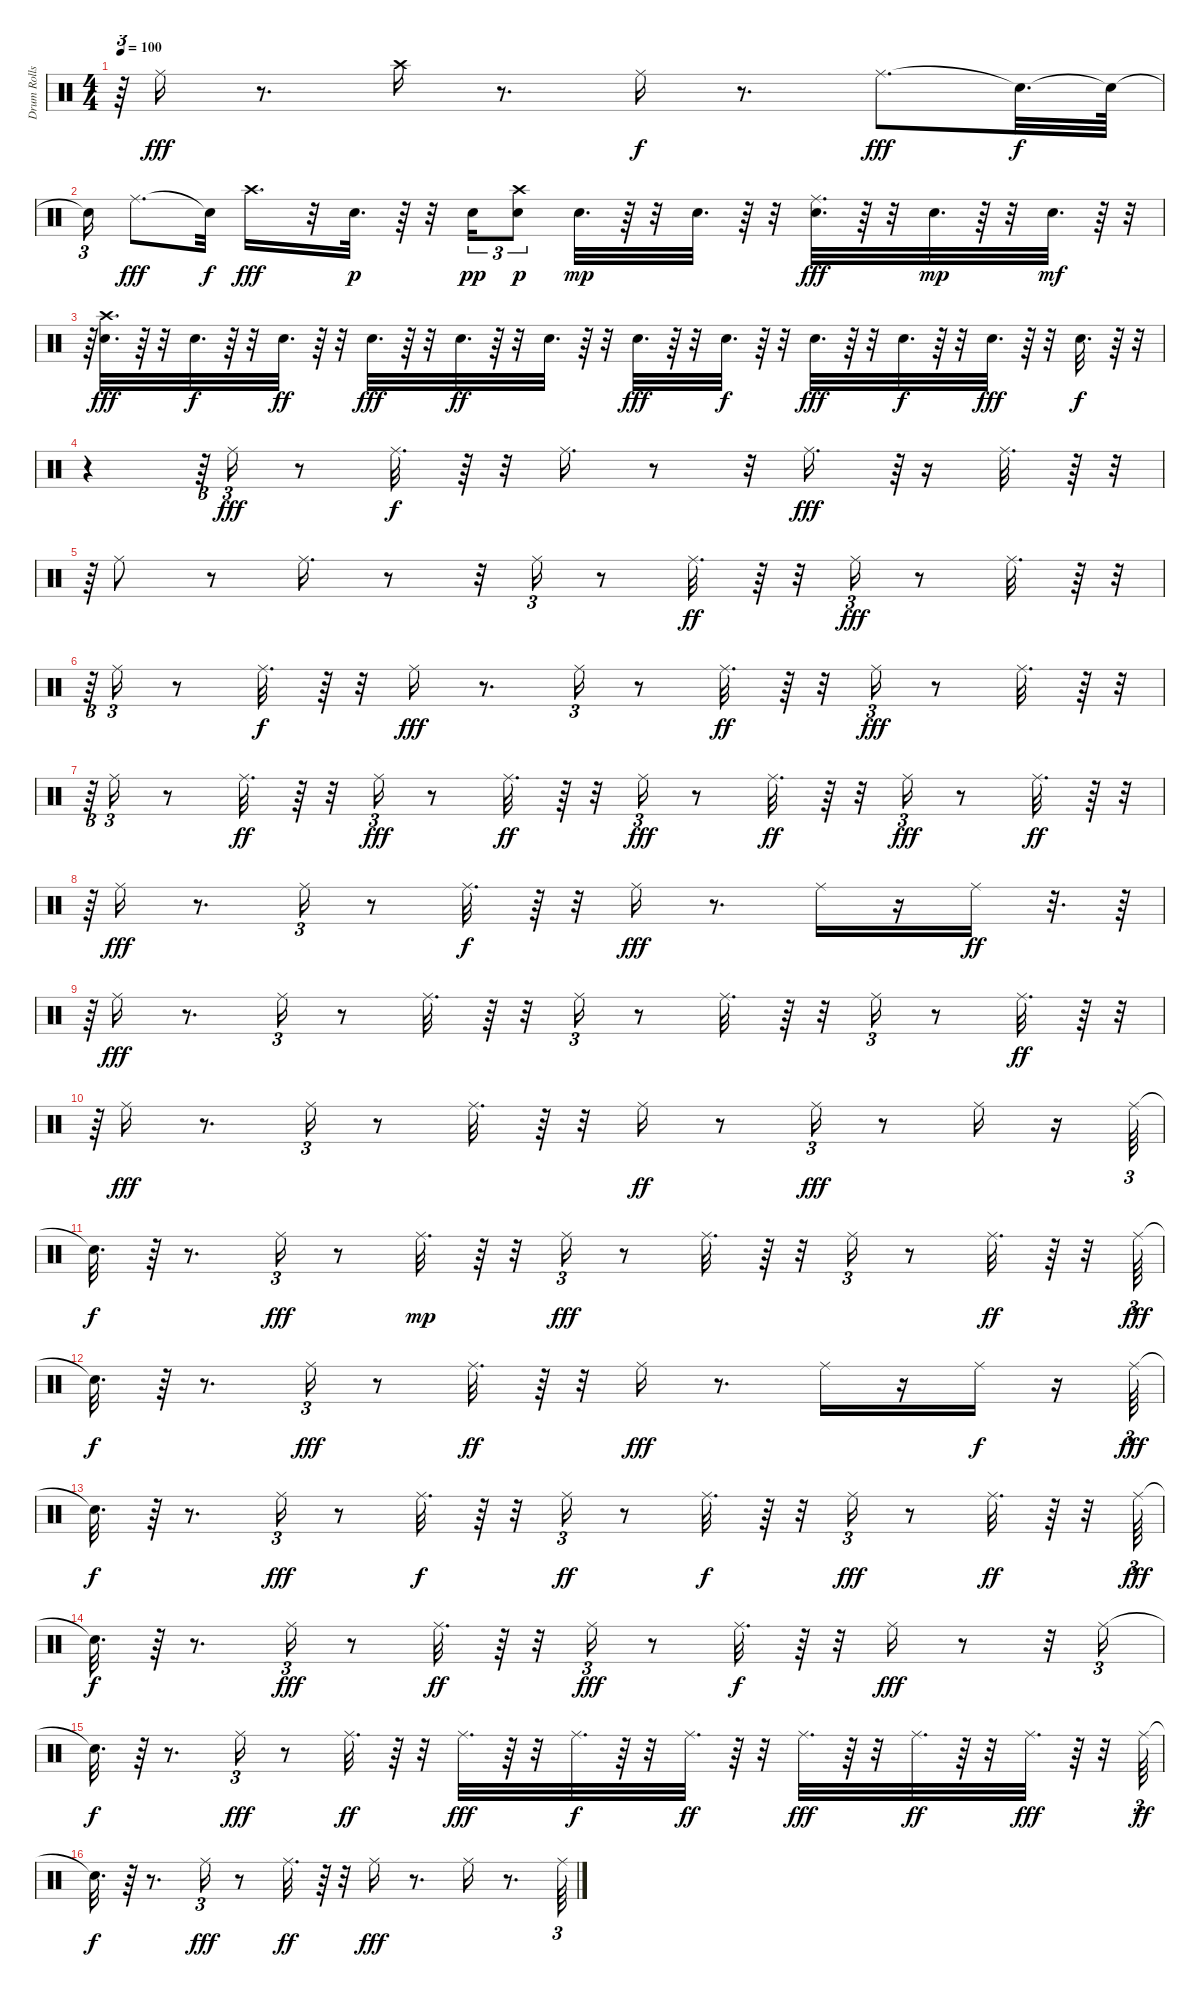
\track ("Drum Rolls" "Drum Rolls") {instrument percussion}
\staff {score}
\articulation defaults
\ts (4 4)
\tempo 100
\clef neutral
\ks c
r.64{tu (3 2) dy ff} "Ride (middle)".16{dy fff} r.8{d} "Crash high (hit)".16 r.8{d} "Ride (middle)".16{dy f} r.8{d} "Ride (middle)".8{d dy fff} "Snare (hit)"{t}.32{d dy f} "Snare (hit)"{t}.64 |
"Snare (hit)"{t}.16{tu (3 2)} "Ride (middle)".8{d dy fff} "Snare (hit)"{t}.32{dy f} "Crash high (hit)".16{d dy fff} r.32 "Electric Snare (hit)".32{d dy p} r.64 r.32 "Electric Snare (hit)".16{tu (3 2) dy pp} ("Crash high (hit)" "Electric Snare (hit)").8{tu (3 2) dy p} "Electric Snare (hit)".32{d dy mp} r.64 r.32 "Electric Snare (hit)".32{d} r.64 r.32 ("Electric Snare (hit)" "Ride (middle)").32{d dy fff} r.64 r.32 "Electric Snare (hit)".32{d dy mp} r.64 r.32 "Electric Snare (hit)".32{d dy mf} r.64 r.32{tu (3 2)} |
r.64{tu (3 2)} ("Electric Snare (hit)" "Crash high (hit)").32{d dy fff} r.64 r.32 "Electric Snare (hit)".32{d dy f} r.64 r.32 "Electric Snare (hit)".32{d dy ff} r.64 r.32 "Electric Snare (hit)".32{d dy fff} r.64 r.32 "Electric Snare (hit)".32{d dy ff} r.64 r.32 "Electric Snare (hit)".32{d} r.64 r.32 "Electric Snare (hit)".32{d dy fff} r.64 r.32 "Electric Snare (hit)".32{d dy f} r.64 r.32 "Electric Snare (hit)".32{d dy fff} r.64 r.32 "Electric Snare (hit)".32{d dy f} r.64 r.32 "Electric Snare (hit)".32{d dy fff} r.64 r.32 "Electric Snare (hit)".32{d dy f} r.64 r.32{tu (3 2)} |
r.4 r.64{tu (3 2)} "Ride (middle)".16{tu (3 2) dy fff} r.8 "Ride (middle)".32{d dy f} r.64 r.32 "Ride (middle)".16{d} r.8 r.32 "Ride (middle)".16{d dy fff} r.64{tu (3 2)} r.16 "Ride (middle)".32{d} r.64 r.32{tu (3 2)} |
r.64{tu (3 2)} "Ride (middle)".8 r.8 "Ride (middle)".16{d} r.8 r.32 "Ride (middle)".16{tu (3 2)} r.8 "Ride (middle)".32{d dy ff} r.64 r.32 "Ride (middle)".16{tu (3 2) dy fff} r.8 "Ride (middle)".32{d} r.64 r.32{tu (3 2)} |
r.64{tu (3 2)} "Ride (middle)".16{tu (3 2)} r.8 "Ride (middle)".32{d dy f} r.64 r.32 "Ride (middle)".16{dy fff} r.8{d} "Ride (middle)".16{tu (3 2)} r.8 "Ride (middle)".32{d dy ff} r.64 r.32 "Ride (middle)".16{tu (3 2) dy fff} r.8 "Ride (middle)".32{d} r.64 r.32{tu (3 2)} |
r.64{tu (3 2)} "Ride (middle)".16{tu (3 2)} r.8 "Ride (middle)".32{d dy ff} r.64 r.32 "Ride (middle)".16{tu (3 2) dy fff} r.8 "Ride (middle)".32{d dy ff} r.64 r.32 "Ride (middle)".16{tu (3 2) dy fff} r.8 "Ride (middle)".32{d dy ff} r.64 r.32 "Ride (middle)".16{tu (3 2) dy fff} r.8 "Ride (middle)".32{d dy ff} r.64 r.32{tu (3 2)} |
r.64{tu (3 2)} "Ride (middle)".16{dy fff} r.8{d} "Ride (middle)".16{tu (3 2)} r.8 "Ride (middle)".32{d dy f} r.64 r.32 "Ride (middle)".16{dy fff} r.8{d} "Ride (middle)".16 r.16 "Ride (middle)".16{dy ff} r.32{d} r.64 |
r.64{tu (3 2)} "Ride (middle)".16{dy fff} r.8{d} "Ride (middle)".16{tu (3 2)} r.8 "Ride (middle)".32{d} r.64 r.32 "Ride (middle)".16{tu (3 2)} r.8 "Ride (middle)".32{d} r.64 r.32 "Ride (middle)".16{tu (3 2)} r.8 "Ride (middle)".32{d dy ff} r.64 r.32{tu (3 2)} |
r.64{tu (3 2)} "Ride (middle)".16{dy fff} r.8{d} "Ride (middle)".16{tu (3 2)} r.8 "Ride (middle)".32{d} r.64 r.32 "Ride (middle)".16{dy ff} r.8 "Ride (middle)".16{tu (3 2) dy fff} r.8 "Ride (middle)".16 r.16 "Ride (middle)".64{tu (3 2)} |
"Snare (hit)"{t}.32{d dy f} r.64 r.8{d} "Ride (middle)".16{tu (3 2) dy fff} r.8 "Ride (middle)".32{d dy mp} r.64 r.32 "Ride (middle)".16{tu (3 2) dy fff} r.8 "Ride (middle)".32{d} r.64 r.32 "Ride (middle)".16{tu (3 2)} r.8 "Ride (middle)".32{d dy ff} r.64 r.32 "Ride (middle)".64{tu (3 2) dy fff} |
"Snare (hit)"{t}.32{d dy f} r.64 r.8{d} "Ride (middle)".16{tu (3 2) dy fff volume 12} r.8 "Ride (middle)".32{d dy ff volume 12} r.64 r.32 "Ride (middle)".16{dy fff volume 12} r.8{d} "Ride (middle)".16{volume 11} r.16 "Ride (middle)".16{dy f volume 11} r.16 "Ride (middle)".64{tu (3 2) dy fff} |
"Snare (hit)"{t}.32{d dy f} r.64 r.8{d} "Ride (middle)".16{tu (3 2) dy fff volume 10} r.8 "Ride (middle)".32{d dy f volume 10} r.64 r.32 "Ride (middle)".16{tu (3 2) dy ff} r.8 "Ride (middle)".32{d dy f volume 9} r.64 r.32 "Ride (middle)".16{tu (3 2) dy fff volume 9} r.8 "Ride (middle)".32{d dy ff volume 9} r.64 r.32 "Ride (middle)".64{tu (3 2) dy fff volume 8} |
"Snare (hit)"{t}.32{d dy f} r.64 r.8{d} "Ride (middle)".16{tu (3 2) dy fff volume 8} r.8 "Ride (middle)".32{d dy ff volume 8} r.64 r.32 "Ride (middle)".16{tu (3 2) dy fff volume 8} r.8 "Ride (middle)".32{d dy f volume 7} r.64 r.32 "Ride (middle)".16{dy fff} r.8 r.32 "Ride (middle)".16{tu (3 2) volume 7} |
"Snare (hit)"{t}.32{d dy f} r.64 r.8{d} "Ride (middle)".16{tu (3 2) dy fff volume 6} r.8 "Ride (middle)".32{d dy ff volume 6} r.64 r.32 "Ride (middle)".32{d dy fff} r.64 r.32 "Ride (middle)".32{d dy f volume 5} r.64 r.32 "Ride (middle)".32{d dy ff volume 5} r.64 r.32 "Ride (middle)".32{d dy fff volume 5} r.64 r.32 "Ride (middle)".32{d dy ff volume 5} r.64 r.32 "Ride (middle)".32{d dy fff} r.64 r.32 "Ride (middle)".64{tu (3 2) dy ff} |
"Snare (hit)"{t}.32{d dy f} r.64 r.8{d} "Ride (middle)".16{tu (3 2) dy fff volume 4} r.8 "Ride (middle)".32{d dy ff volume 4} r.64 r.32 "Ride (middle)".16{dy fff volume 4} r.8{d} "Ride (middle)".16{volume 3} r.8{d} "Ride (middle)".64{tu (3 2) volume 3}
